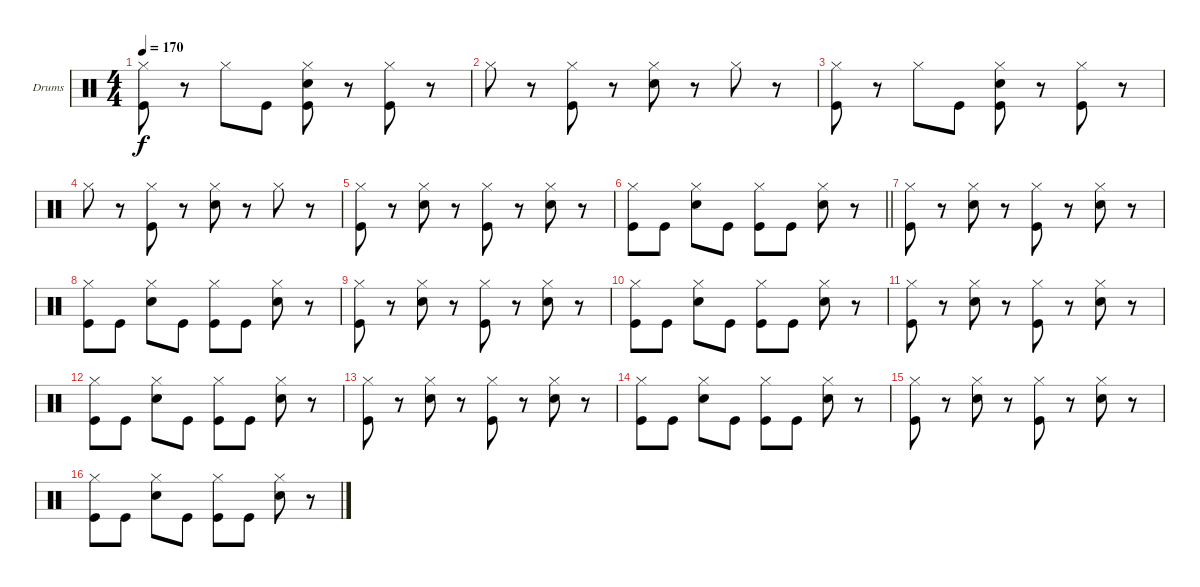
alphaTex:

\bracketExtendMode groupsimilarinstruments
\firstSystemTrackNameOrientation horizontal
\otherSystemsTrackNameOrientation horizontal
\track ("Drumkit" "Drums") {instrument percussion}
\staff {score}
\articulation defaults
\ts (4 4)
\tempo 170
\clef neutral
\ks c
("Hi-Hat (closed)" "Kick (hit)").8{dy f} r.8 "Hi-Hat (closed)".8 "Kick (hit)".8 ("Hi-Hat (closed)" "Snare (hit) 2" "Kick (hit)").8 r.8 ("Hi-Hat (closed)" "Kick (hit)").8 r.8 |
"Hi-Hat (closed)".8 r.8 ("Hi-Hat (closed)" "Kick (hit)").8 r.8 ("Hi-Hat (closed)" "Snare (hit) 2").8 r.8 "Hi-Hat (closed)".8 r.8 |
("Hi-Hat (closed)" "Kick (hit)").8 r.8 "Hi-Hat (closed)".8 "Kick (hit)".8 ("Hi-Hat (closed)" "Snare (hit) 2" "Kick (hit)").8 r.8 ("Hi-Hat (closed)" "Kick (hit)").8 r.8 |
"Hi-Hat (closed)".8 r.8 ("Hi-Hat (closed)" "Kick (hit)").8 r.8 ("Hi-Hat (closed)" "Snare (hit) 2").8 r.8 "Hi-Hat (closed)".8 r.8 |
("Hi-Hat (closed)" "Kick (hit)").8 r.8 ("Hi-Hat (closed)" "Snare (hit) 2").8 r.8 ("Hi-Hat (closed)" "Kick (hit)").8 r.8 ("Hi-Hat (closed)" "Snare (hit) 2").8 r.8 |
\barLineRight lightlight
("Hi-Hat (closed)" "Kick (hit)").8 "Kick (hit)".8 ("Hi-Hat (closed)" "Snare (hit) 2").8 "Kick (hit)".8 ("Hi-Hat (closed)" "Kick (hit)").8 "Kick (hit)".8 ("Hi-Hat (closed)" "Snare (hit) 2").8 r.8 |
("Hi-Hat (closed)" "Kick (hit)").8 r.8 ("Hi-Hat (closed)" "Snare (hit) 2").8 r.8 ("Hi-Hat (closed)" "Kick (hit)").8 r.8 ("Hi-Hat (closed)" "Snare (hit) 2").8 r.8 |
("Hi-Hat (closed)" "Kick (hit)").8 "Kick (hit)".8 ("Hi-Hat (closed)" "Snare (hit) 2").8 "Kick (hit)".8 ("Hi-Hat (closed)" "Kick (hit)").8 "Kick (hit)".8 ("Hi-Hat (closed)" "Snare (hit) 2").8 r.8 |
("Hi-Hat (closed)" "Kick (hit)").8 r.8 ("Hi-Hat (closed)" "Snare (hit) 2").8 r.8 ("Hi-Hat (closed)" "Kick (hit)").8 r.8 ("Hi-Hat (closed)" "Snare (hit) 2").8 r.8 |
("Hi-Hat (closed)" "Kick (hit)").8 "Kick (hit)".8 ("Hi-Hat (closed)" "Snare (hit) 2").8 "Kick (hit)".8 ("Hi-Hat (closed)" "Kick (hit)").8 "Kick (hit)".8 ("Hi-Hat (closed)" "Snare (hit) 2").8 r.8 |
("Hi-Hat (closed)" "Kick (hit)").8 r.8 ("Hi-Hat (closed)" "Snare (hit) 2").8 r.8 ("Hi-Hat (closed)" "Kick (hit)").8 r.8 ("Hi-Hat (closed)" "Snare (hit) 2").8 r.8 |
("Hi-Hat (closed)" "Kick (hit)").8 "Kick (hit)".8 ("Hi-Hat (closed)" "Snare (hit) 2").8 "Kick (hit)".8 ("Hi-Hat (closed)" "Kick (hit)").8 "Kick (hit)".8 ("Hi-Hat (closed)" "Snare (hit) 2").8 r.8 |
("Hi-Hat (closed)" "Kick (hit)").8 r.8 ("Hi-Hat (closed)" "Snare (hit) 2").8 r.8 ("Hi-Hat (closed)" "Kick (hit)").8 r.8 ("Hi-Hat (closed)" "Snare (hit) 2").8 r.8 |
("Hi-Hat (closed)" "Kick (hit)").8 "Kick (hit)".8 ("Hi-Hat (closed)" "Snare (hit) 2").8 "Kick (hit)".8 ("Hi-Hat (closed)" "Kick (hit)").8 "Kick (hit)".8 ("Hi-Hat (closed)" "Snare (hit) 2").8 r.8 |
("Hi-Hat (closed)" "Kick (hit)").8 r.8 ("Hi-Hat (closed)" "Snare (hit) 2").8 r.8 ("Hi-Hat (closed)" "Kick (hit)").8 r.8 ("Hi-Hat (closed)" "Snare (hit) 2").8 r.8 |
("Hi-Hat (closed)" "Kick (hit)").8 "Kick (hit)".8 ("Hi-Hat (closed)" "Snare (hit) 2").8 "Kick (hit)".8 ("Hi-Hat (closed)" "Kick (hit)").8 "Kick (hit)".8 ("Hi-Hat (closed)" "Snare (hit) 2").8 r.8
